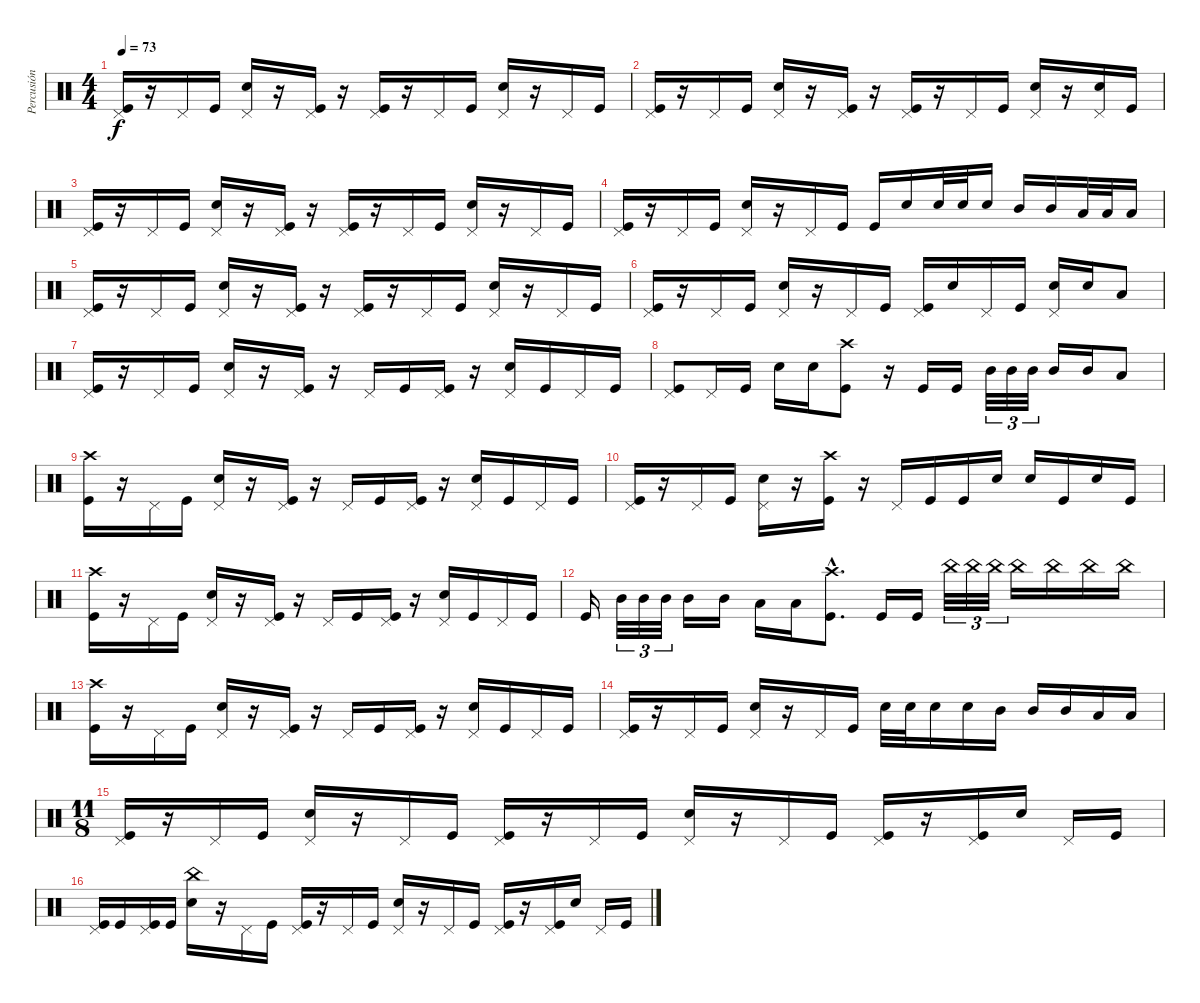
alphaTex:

\track ("Percusión" "Percusión") {instrument percussion}
\staff {score}
\articulation defaults
\ts (4 4)
\tempo 73
\clef neutral
\ks c
("Pedal Hi-Hat (hit)" "Kick (hit)").16{dy f} r.16 "Pedal Hi-Hat (hit)".16 "Kick (hit)".16 ("Pedal Hi-Hat (hit)" "Electric Snare (hit)").16 r.16 ("Pedal Hi-Hat (hit)" "Kick (hit)").16 r.16 ("Pedal Hi-Hat (hit)" "Kick (hit)").16 r.16 "Pedal Hi-Hat (hit)".16 "Kick (hit)".16 ("Pedal Hi-Hat (hit)" "Electric Snare (hit)").16 r.16 "Pedal Hi-Hat (hit)".16 "Kick (hit)".16 |
("Pedal Hi-Hat (hit)" "Kick (hit)").16 r.16 "Pedal Hi-Hat (hit)".16 "Kick (hit)".16 ("Pedal Hi-Hat (hit)" "Electric Snare (hit)").16 r.16 ("Pedal Hi-Hat (hit)" "Kick (hit)").16 r.16 ("Pedal Hi-Hat (hit)" "Kick (hit)").16 r.16 "Pedal Hi-Hat (hit)".16 "Kick (hit)".16 ("Pedal Hi-Hat (hit)" "Electric Snare (hit)").16 r.16 ("Pedal Hi-Hat (hit)" "Electric Snare (hit)").16 "Kick (hit)".16 |
("Pedal Hi-Hat (hit)" "Kick (hit)").16 r.16 "Pedal Hi-Hat (hit)".16 "Kick (hit)".16 ("Pedal Hi-Hat (hit)" "Electric Snare (hit)").16 r.16 ("Pedal Hi-Hat (hit)" "Kick (hit)").16 r.16 ("Pedal Hi-Hat (hit)" "Kick (hit)").16 r.16 "Pedal Hi-Hat (hit)".16 "Kick (hit)".16 ("Pedal Hi-Hat (hit)" "Electric Snare (hit)").16 r.16 "Pedal Hi-Hat (hit)".16 "Kick (hit)".16 |
("Pedal Hi-Hat (hit)" "Kick (hit)").16 r.16 "Pedal Hi-Hat (hit)".16 "Kick (hit)".16 ("Pedal Hi-Hat (hit)" "Electric Snare (hit)").16 r.16 "Pedal Hi-Hat (hit)".16 "Kick (hit)".16 "Kick (hit)".16 "Electric Snare (hit)".16 "Electric Snare (hit)".32 "Electric Snare (hit)".32 "Electric Snare (hit)".16 "Mid Tom (hit)".16 "Mid Tom (hit)".16 "Low Tom (hit)".32 "Low Tom (hit)".32 "Low Tom (hit)".16 |
("Pedal Hi-Hat (hit)" "Kick (hit)").16 r.16 "Pedal Hi-Hat (hit)".16 "Kick (hit)".16 ("Pedal Hi-Hat (hit)" "Electric Snare (hit)").16 r.16 ("Pedal Hi-Hat (hit)" "Kick (hit)").16 r.16 ("Pedal Hi-Hat (hit)" "Kick (hit)").16 r.16 "Pedal Hi-Hat (hit)".16 "Kick (hit)".16 ("Pedal Hi-Hat (hit)" "Electric Snare (hit)").16 r.16 "Pedal Hi-Hat (hit)".16 "Kick (hit)".16 |
("Pedal Hi-Hat (hit)" "Kick (hit)").16 r.16 "Pedal Hi-Hat (hit)".16 "Kick (hit)".16 ("Pedal Hi-Hat (hit)" "Electric Snare (hit)").16 r.16 "Pedal Hi-Hat (hit)".16 "Kick (hit)".16 ("Pedal Hi-Hat (hit)" "Kick (hit)").16 "Electric Snare (hit)".16 "Pedal Hi-Hat (hit)".16 "Kick (hit)".16 ("Pedal Hi-Hat (hit)" "Electric Snare (hit)").16 "Electric Snare (hit)".16 "Low Tom (hit)".8 |
("Pedal Hi-Hat (hit)" "Kick (hit)").16 r.16 "Pedal Hi-Hat (hit)".16 "Kick (hit)".16 ("Pedal Hi-Hat (hit)" "Electric Snare (hit)").16 r.16 ("Pedal Hi-Hat (hit)" "Kick (hit)").16 r.16 "Pedal Hi-Hat (hit)".16 "Kick (hit)".16 ("Pedal Hi-Hat (hit)" "Kick (hit)").16 r.16 ("Pedal Hi-Hat (hit)" "Electric Snare (hit)").16 "Kick (hit)".16 "Pedal Hi-Hat (hit)".16 "Kick (hit)".16 |
("Pedal Hi-Hat (hit)" "Kick (hit)").8 "Pedal Hi-Hat (hit)".16 "Kick (hit)".16 "Electric Snare (hit)".16 "Electric Snare (hit)".16 ("Crash high (hit)" "Kick (hit)").8 r.16 "Kick (hit)".16 "Kick (hit)".16 "Mid Tom (hit)".32{tu (3 2)} "Mid Tom (hit)".32{tu (3 2)} "Mid Tom (hit)".32{tu (3 2)} "Mid Tom (hit)".16 "Mid Tom (hit)".16 "Low Tom (hit)".8 |
("Crash high (hit)" "Kick (hit)").16 r.16 "Pedal Hi-Hat (hit)".16 "Kick (hit)".16 ("Pedal Hi-Hat (hit)" "Electric Snare (hit)").16 r.16 ("Pedal Hi-Hat (hit)" "Kick (hit)").16 r.16 "Pedal Hi-Hat (hit)".16 "Kick (hit)".16 ("Pedal Hi-Hat (hit)" "Kick (hit)").16 r.16 ("Pedal Hi-Hat (hit)" "Electric Snare (hit)").16 "Kick (hit)".16 "Pedal Hi-Hat (hit)".16 "Kick (hit)".16 |
("Pedal Hi-Hat (hit)" "Kick (hit)").16 r.16 "Pedal Hi-Hat (hit)".16 "Kick (hit)".16 ("Pedal Hi-Hat (hit)" "Electric Snare (hit)").16 r.16 ("Crash high (hit)" "Kick (hit)").16 r.16 "Pedal Hi-Hat (hit)".16 "Kick (hit)".16 "Kick (hit)".16 "Electric Snare (hit)".16 "Electric Snare (hit)".16 "Kick (hit)".16 "Electric Snare (hit)".16 "Kick (hit)".16 |
("Crash high (hit)" "Kick (hit)").16 r.16 "Pedal Hi-Hat (hit)".16 "Kick (hit)".16 ("Pedal Hi-Hat (hit)" "Electric Snare (hit)").16 r.16 ("Pedal Hi-Hat (hit)" "Kick (hit)").16 r.16 "Pedal Hi-Hat (hit)".16 "Kick (hit)".16 ("Pedal Hi-Hat (hit)" "Kick (hit)").16 r.16 ("Pedal Hi-Hat (hit)" "Electric Snare (hit)").16 "Kick (hit)".16 "Pedal Hi-Hat (hit)".16 "Kick (hit)".16 |
"Kick (hit)".16 "Mid Tom (hit)".32{tu (3 2)} "Mid Tom (hit)".32{tu (3 2)} "Mid Tom (hit)".32{tu (3 2)} "Mid Tom (hit)".16 "Mid Tom (hit)".16 "Low Tom (hit)".16 "Low Tom (hit)".16 ("Crash high (hit)"{hac} "Kick (hit)"{hac}).8{d} "Kick (hit)".16 "Kick (hit)".16 "China (hit)".32{tu (3 2)} "China (hit)".32{tu (3 2)} "China (hit)".32{tu (3 2)} "China (hit)".16 "China (hit)".16 "China (hit)".16 "China (hit)".16 |
("Crash high (hit)" "Kick (hit)").16 r.16 "Pedal Hi-Hat (hit)".16 "Kick (hit)".16 ("Pedal Hi-Hat (hit)" "Electric Snare (hit)").16 r.16 ("Pedal Hi-Hat (hit)" "Kick (hit)").16 r.16 "Pedal Hi-Hat (hit)".16 "Kick (hit)".16 ("Pedal Hi-Hat (hit)" "Kick (hit)").16 r.16 ("Pedal Hi-Hat (hit)" "Electric Snare (hit)").16 "Kick (hit)".16 "Pedal Hi-Hat (hit)".16 "Kick (hit)".16 |
("Pedal Hi-Hat (hit)" "Kick (hit)").16 r.16 "Pedal Hi-Hat (hit)".16 "Kick (hit)".16 ("Pedal Hi-Hat (hit)" "Electric Snare (hit)").16 r.16 "Pedal Hi-Hat (hit)".16 "Kick (hit)".16 "Electric Snare (hit)".32 "Electric Snare (hit)".32 "Electric Snare (hit)".16 "Electric Snare (hit)".16 "Mid Tom (hit)".16 "Mid Tom (hit)".16 "Mid Tom (hit)".16 "Low Tom (hit)".16 "Low Tom (hit)".16 |
\ts (11 8)
("Pedal Hi-Hat (hit)" "Kick (hit)").16 r.16 "Pedal Hi-Hat (hit)".16 "Kick (hit)".16 ("Pedal Hi-Hat (hit)" "Electric Snare (hit)").16 r.16 "Pedal Hi-Hat (hit)".16 "Kick (hit)".16 ("Pedal Hi-Hat (hit)" "Kick (hit)").16 r.16 "Pedal Hi-Hat (hit)".16 "Kick (hit)".16 ("Pedal Hi-Hat (hit)" "Electric Snare (hit)").16 r.16 "Pedal Hi-Hat (hit)".16 "Kick (hit)".16 ("Pedal Hi-Hat (hit)" "Kick (hit)").16 r.16 ("Pedal Hi-Hat (hit)" "Kick (hit)").16 "Electric Snare (hit)".16 "Pedal Hi-Hat (hit)".16 "Kick (hit)".16 |
("Pedal Hi-Hat (hit)" "Kick (hit)").16 "Kick (hit)".16 ("Pedal Hi-Hat (hit)" "Kick (hit)").16 "Kick (hit)".16 ("China (hit)" "Electric Snare (hit)").16 r.16 "Pedal Hi-Hat (hit)".16 "Kick (hit)".16 ("Pedal Hi-Hat (hit)" "Kick (hit)").16 r.16 "Pedal Hi-Hat (hit)".16 "Kick (hit)".16 ("Pedal Hi-Hat (hit)" "Electric Snare (hit)").16 r.16 "Pedal Hi-Hat (hit)".16 "Kick (hit)".16 ("Pedal Hi-Hat (hit)" "Kick (hit)").16 r.16 ("Pedal Hi-Hat (hit)" "Kick (hit)").16 "Electric Snare (hit)".16 "Pedal Hi-Hat (hit)".16 "Kick (hit)".16
